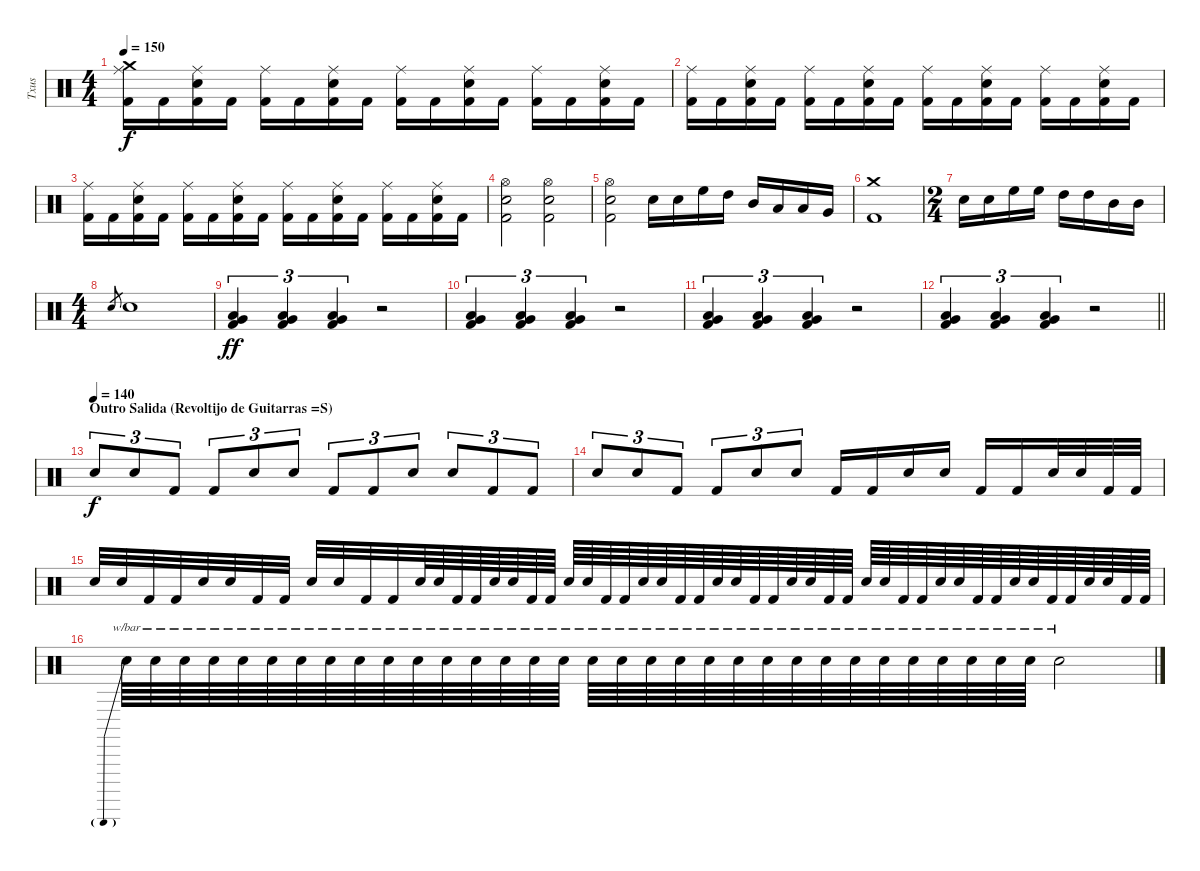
\track ("Txus" "Txus") {instrument percussion}
\staff {score}
\articulation defaults
\ts (4 4)
\tempo 150
\clef neutral
\ks c
("Crash medium (hit)" "Ride (middle)" "Kick (hit) 2").16{dy f} "Kick (hit) 2".16 ("Ride (middle)" "Electric Snare (hit)" "Kick (hit) 2").16 "Kick (hit) 2".16 ("Ride (middle)" "Kick (hit) 2").16 "Kick (hit) 2".16 ("Ride (middle)" "Electric Snare (hit)" "Kick (hit) 2").16 "Kick (hit) 2".16 ("Ride (middle)" "Kick (hit) 2").16 "Kick (hit) 2".16 ("Ride (middle)" "Electric Snare (hit)" "Kick (hit) 2").16 "Kick (hit) 2".16 ("Ride (middle)" "Kick (hit) 2").16 "Kick (hit) 2".16 ("Ride (middle)" "Electric Snare (hit)" "Kick (hit) 2").16 "Kick (hit) 2".16 |
("Ride (middle)" "Kick (hit) 2").16 "Kick (hit) 2".16 ("Ride (middle)" "Electric Snare (hit)" "Kick (hit) 2").16 "Kick (hit) 2".16 ("Ride (middle)" "Kick (hit) 2").16 "Kick (hit) 2".16 ("Ride (middle)" "Electric Snare (hit)" "Kick (hit) 2").16 "Kick (hit) 2".16 ("Ride (middle)" "Kick (hit) 2").16 "Kick (hit) 2".16 ("Ride (middle)" "Electric Snare (hit)" "Kick (hit) 2").16 "Kick (hit) 2".16 ("Ride (middle)" "Kick (hit) 2").16 "Kick (hit) 2".16 ("Ride (middle)" "Electric Snare (hit)" "Kick (hit) 2").16 "Kick (hit) 2".16 |
("Ride (middle)" "Kick (hit) 2").16 "Kick (hit) 2".16 ("Ride (middle)" "Electric Snare (hit)" "Kick (hit) 2").16 "Kick (hit) 2".16 ("Ride (middle)" "Kick (hit) 2").16 "Kick (hit) 2".16 ("Ride (middle)" "Electric Snare (hit)" "Kick (hit) 2").16 "Kick (hit) 2".16 ("Ride (middle)" "Kick (hit) 2").16 "Kick (hit) 2".16 ("Ride (middle)" "Electric Snare (hit)" "Kick (hit) 2").16 "Kick (hit) 2".16 ("Ride (middle)" "Kick (hit) 2").16 "Kick (hit) 2".16 ("Ride (middle)" "Electric Snare (hit)" "Kick (hit) 2").16 "Kick (hit) 2".16 |
("Hi-Hat (open)" "Electric Snare (hit)" "Kick (hit) 2").2 ("Hi-Hat (open)" "Electric Snare (hit)" "Kick (hit) 2").2 |
("Hi-Hat (open)" "Electric Snare (hit)" "Kick (hit) 2").2 "Electric Snare (hit)".16 "Electric Snare (hit)".16 "High Floor Tom (hit)".16 "High Tom (hit)".16 "Mid Tom (hit)".16 "Low Tom (hit)".16 "Low Tom (hit)".16 "Very Low Tom (hit)".16 |
("Crash medium (hit)" "Kick (hit) 2").1 |
\ts (2 4)
"Electric Snare (hit)".16 "Electric Snare (hit)".16 "High Floor Tom (hit)".16 "High Floor Tom (hit)".16 "High Tom (hit)".16 "High Tom (hit)".16 "Mid Tom (hit)".16 "Mid Tom (hit)".16 |
\ts (4 4)
"Electric Snare (hit)".8{gr} "Electric Snare (hit)".1 |
("Very Low Tom (hit)" "Low Floor Tom (hit)" "Kick (hit) 2").4{tu (3 2) dy ff} ("Very Low Tom (hit)" "Low Floor Tom (hit)" "Kick (hit) 2").4{tu (3 2)} ("Very Low Tom (hit)" "Low Floor Tom (hit)" "Kick (hit) 2").4{tu (3 2)} r.2 |
("Very Low Tom (hit)" "Low Floor Tom (hit)" "Kick (hit) 2").4{tu (3 2)} ("Very Low Tom (hit)" "Low Floor Tom (hit)" "Kick (hit) 2").4{tu (3 2)} ("Very Low Tom (hit)" "Low Floor Tom (hit)" "Kick (hit) 2").4{tu (3 2)} r.2 |
("Very Low Tom (hit)" "Low Floor Tom (hit)" "Kick (hit) 2").4{tu (3 2)} ("Very Low Tom (hit)" "Low Floor Tom (hit)" "Kick (hit) 2").4{tu (3 2)} ("Very Low Tom (hit)" "Low Floor Tom (hit)" "Kick (hit) 2").4{tu (3 2)} r.2 |
\barLineRight lightlight
("Very Low Tom (hit)" "Low Floor Tom (hit)" "Kick (hit) 2").4{tu (3 2)} ("Very Low Tom (hit)" "Low Floor Tom (hit)" "Kick (hit) 2").4{tu (3 2)} ("Very Low Tom (hit)" "Low Floor Tom (hit)" "Kick (hit) 2").4{tu (3 2)} r.2 |
\section ("" "Outro Salida (Revoltijo de Guitarras =S)")
\tempo (140)
"Electric Snare (hit)".8{tu (3 2) dy f} "Electric Snare (hit)".8{tu (3 2)} "Kick (hit) 2".8{tu (3 2)} "Kick (hit) 2".8{tu (3 2)} "Electric Snare (hit)".8{tu (3 2)} "Electric Snare (hit)".8{tu (3 2)} "Kick (hit) 2".8{tu (3 2)} "Kick (hit) 2".8{tu (3 2)} "Electric Snare (hit)".8{tu (3 2)} "Electric Snare (hit)".8{tu (3 2)} "Kick (hit) 2".8{tu (3 2)} "Kick (hit) 2".8{tu (3 2)} |
"Electric Snare (hit)".8{tu (3 2)} "Electric Snare (hit)".8{tu (3 2)} "Kick (hit) 2".8{tu (3 2)} "Kick (hit) 2".8{tu (3 2)} "Electric Snare (hit)".8{tu (3 2)} "Electric Snare (hit)".8{tu (3 2)} "Kick (hit) 2".16 "Kick (hit) 2".16 "Electric Snare (hit)".16 "Electric Snare (hit)".16 "Kick (hit) 2".16 "Kick (hit) 2".16 "Electric Snare (hit)".32 "Electric Snare (hit)".32 "Kick (hit) 2".32 "Kick (hit) 2".32 |
"Electric Snare (hit)".32 "Electric Snare (hit)".32 "Kick (hit) 2".32 "Kick (hit) 2".32 "Electric Snare (hit)".32 "Electric Snare (hit)".32 "Kick (hit) 2".32 "Kick (hit) 2".32 "Electric Snare (hit)".32 "Electric Snare (hit)".32 "Kick (hit) 2".32 "Kick (hit) 2".32 "Electric Snare (hit)".64 "Electric Snare (hit)".64 "Kick (hit) 2".64 "Kick (hit) 2".64 "Electric Snare (hit)".64 "Electric Snare (hit)".64 "Kick (hit) 2".64 "Kick (hit) 2".64 "Electric Snare (hit)".64 "Electric Snare (hit)".64 "Kick (hit) 2".64 "Kick (hit) 2".64 "Electric Snare (hit)".64 "Electric Snare (hit)".64 "Kick (hit) 2".64 "Kick (hit) 2".64 "Electric Snare (hit)".64 "Electric Snare (hit)".64 "Kick (hit) 2".64 "Kick (hit) 2".64 "Electric Snare (hit)".64 "Electric Snare (hit)".64 "Kick (hit) 2".64 "Kick (hit) 2".64 "Electric Snare (hit)".64 "Electric Snare (hit)".64 "Kick (hit) 2".64 "Kick (hit) 2".64 "Electric Snare (hit)".64 "Electric Snare (hit)".64 "Kick (hit) 2".64 "Kick (hit) 2".64 "Electric Snare (hit)".64 "Electric Snare (hit)".64 "Kick (hit) 2".64 "Kick (hit) 2".64 "Electric Snare (hit)".64 "Electric Snare (hit)".64 "Kick (hit) 2".64 "Kick (hit) 2".64 |
"Snare (hit) 2".64{tbe (predive default 0 24 60 24)} "Snare (hit) 2".64{tbe (hold default 0 24 60 24)} "Snare (hit) 2".64{tbe (hold default 0 24 60 24)} "Snare (hit) 2".64{tbe (hold default 0 24 60 24)} "Snare (hit) 2".64{tbe (hold default 0 24 60 24)} "Snare (hit) 2".64{tbe (hold default 0 24 60 24)} "Snare (hit) 2".64{tbe (hold default 0 24 60 24)} "Snare (hit) 2".64{tbe (hold default 0 24 60 24)} "Snare (hit) 2".64{tbe (hold default 0 24 60 24)} "Snare (hit) 2".64{tbe (hold default 0 24 60 24)} "Snare (hit) 2".64{tbe (hold default 0 24 60 24)} "Snare (hit) 2".64{tbe (hold default 0 24 60 24)} "Snare (hit) 2".64{tbe (hold default 0 24 60 24)} "Snare (hit) 2".64{tbe (hold default 0 24 60 24)} "Snare (hit) 2".64{tbe (hold default 0 24 60 24)} "Snare (hit) 2".64{tbe (hold default 0 24 60 24)} "Snare (hit) 2".64{tbe (hold default 0 24 60 24)} "Snare (hit) 2".64{tbe (hold default 0 24 60 24)} "Snare (hit) 2".64{tbe (hold default 0 24 60 24)} "Snare (hit) 2".64{tbe (hold default 0 24 60 24)} "Snare (hit) 2".64{tbe (hold default 0 24 60 24)} "Snare (hit) 2".64{tbe (hold default 0 24 60 24)} "Snare (hit) 2".64{tbe (hold default 0 24 60 24)} "Snare (hit) 2".64{tbe (hold default 0 24 60 24)} "Snare (hit) 2".64{tbe (hold default 0 24 60 24)} "Snare (hit) 2".64{tbe (hold default 0 24 60 24)} "Snare (hit) 2".64{tbe (hold default 0 24 60 24)} "Snare (hit) 2".64{tbe (hold default 0 24 60 24)} "Snare (hit) 2".64{tbe (hold default 0 24 60 24)} "Snare (hit) 2".64{tbe (hold default 0 24 60 24)} "Snare (hit) 2".64{tbe (hold default 0 24 60 24)} "Snare (hit) 2".64{tbe (hold default 0 24 60 24)} "Snare (hit) 2".2{tbe (hold default 0 24 60 24)}
